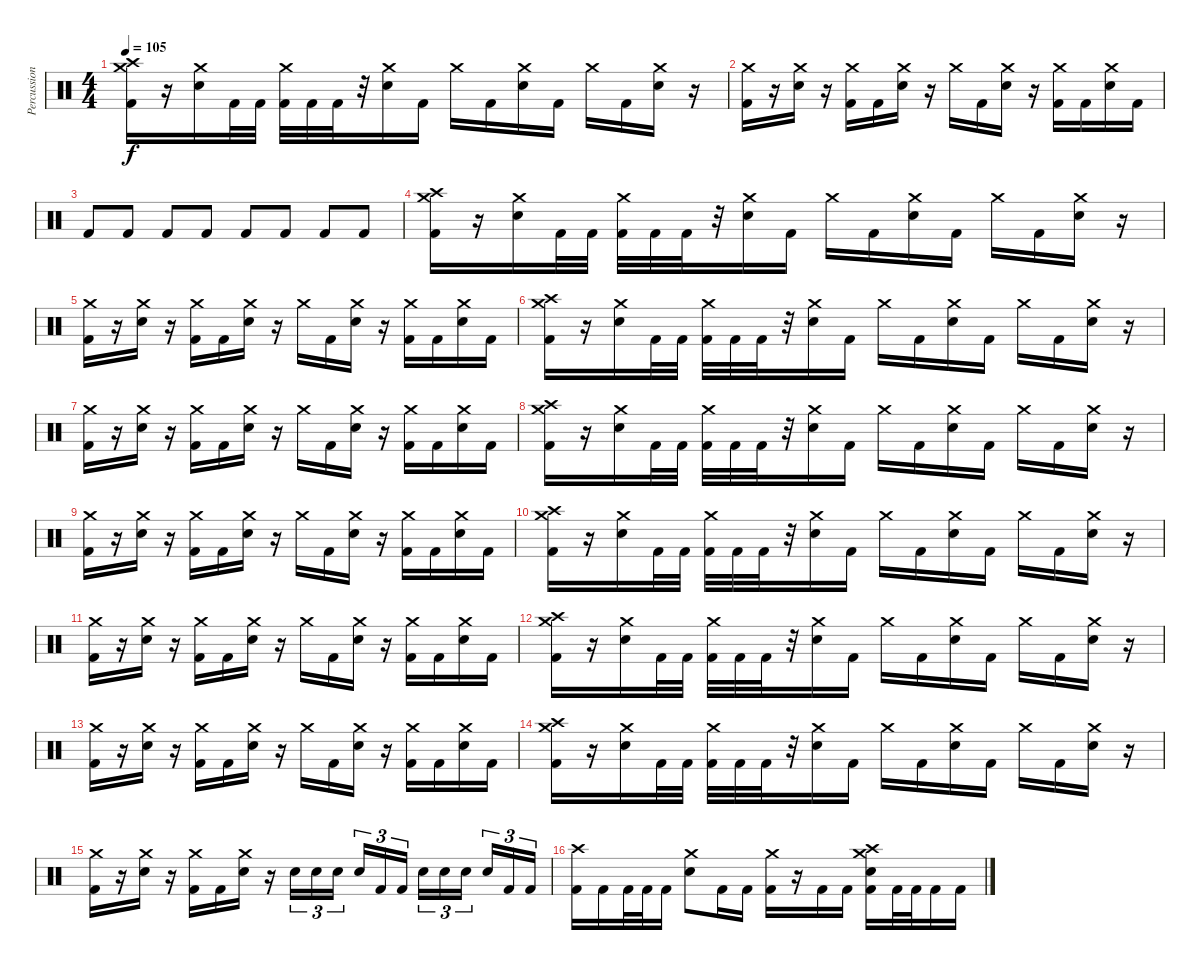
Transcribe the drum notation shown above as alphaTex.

\track ("Percussion" "Percussion") {instrument percussion}
\staff {score}
\articulation defaults
\ts (4 4)
\tempo 105
\clef neutral
\ks c
("Crash medium (hit)" "Crash high (hit)" "Kick (hit) 2").16{dy f} r.16 ("Crash medium (hit)" "Electric Snare (hit)").16 "Kick (hit) 2".32 "Kick (hit) 2".32 ("Crash medium (hit)" "Kick (hit) 2").32 "Kick (hit) 2".32 "Kick (hit) 2".32 r.32 ("Crash medium (hit)" "Electric Snare (hit)").16 "Kick (hit) 2".16 "Crash medium (hit)".16 "Kick (hit) 2".16 ("Crash medium (hit)" "Electric Snare (hit)").16 "Kick (hit) 2".16 "Crash medium (hit)".16 "Kick (hit) 2".16 ("Crash medium (hit)" "Electric Snare (hit)").16 r.16 |
("Crash medium (hit)" "Kick (hit) 2").16 r.16 ("Crash medium (hit)" "Electric Snare (hit)").16 r.16 ("Crash medium (hit)" "Kick (hit) 2").16 "Kick (hit) 2".16 ("Crash medium (hit)" "Electric Snare (hit)").16 r.16 "Crash medium (hit)".16 "Kick (hit) 2".16 ("Crash medium (hit)" "Electric Snare (hit)").16 r.16 ("Crash medium (hit)" "Kick (hit) 2").16 "Kick (hit) 2".16 ("Crash medium (hit)" "Electric Snare (hit)").16 "Kick (hit) 2".16 |
"Kick (hit) 2".8 "Kick (hit) 2".8 "Kick (hit) 2".8 "Kick (hit) 2".8 "Kick (hit) 2".8 "Kick (hit) 2".8 "Kick (hit) 2".8 "Kick (hit) 2".8 |
("Crash medium (hit)" "Crash high (hit)" "Kick (hit) 2").16 r.16 ("Crash medium (hit)" "Electric Snare (hit)").16 "Kick (hit) 2".32 "Kick (hit) 2".32 ("Crash medium (hit)" "Kick (hit) 2").32 "Kick (hit) 2".32 "Kick (hit) 2".32 r.32 ("Crash medium (hit)" "Electric Snare (hit)").16 "Kick (hit) 2".16 "Crash medium (hit)".16 "Kick (hit) 2".16 ("Crash medium (hit)" "Electric Snare (hit)").16 "Kick (hit) 2".16 "Crash medium (hit)".16 "Kick (hit) 2".16 ("Crash medium (hit)" "Electric Snare (hit)").16 r.16 |
("Crash medium (hit)" "Kick (hit) 2").16 r.16 ("Crash medium (hit)" "Electric Snare (hit)").16 r.16 ("Crash medium (hit)" "Kick (hit) 2").16 "Kick (hit) 2".16 ("Crash medium (hit)" "Electric Snare (hit)").16 r.16 "Crash medium (hit)".16 "Kick (hit) 2".16 ("Crash medium (hit)" "Electric Snare (hit)").16 r.16 ("Crash medium (hit)" "Kick (hit) 2").16 "Kick (hit) 2".16 ("Crash medium (hit)" "Electric Snare (hit)").16 "Kick (hit) 2".16 |
("Crash medium (hit)" "Crash high (hit)" "Kick (hit) 2").16 r.16 ("Crash medium (hit)" "Electric Snare (hit)").16 "Kick (hit) 2".32 "Kick (hit) 2".32 ("Crash medium (hit)" "Kick (hit) 2").32 "Kick (hit) 2".32 "Kick (hit) 2".32 r.32 ("Crash medium (hit)" "Electric Snare (hit)").16 "Kick (hit) 2".16 "Crash medium (hit)".16 "Kick (hit) 2".16 ("Crash medium (hit)" "Electric Snare (hit)").16 "Kick (hit) 2".16 "Crash medium (hit)".16 "Kick (hit) 2".16 ("Crash medium (hit)" "Electric Snare (hit)").16 r.16 |
("Crash medium (hit)" "Kick (hit) 2").16 r.16 ("Crash medium (hit)" "Electric Snare (hit)").16 r.16 ("Crash medium (hit)" "Kick (hit) 2").16 "Kick (hit) 2".16 ("Crash medium (hit)" "Electric Snare (hit)").16 r.16 "Crash medium (hit)".16 "Kick (hit) 2".16 ("Crash medium (hit)" "Electric Snare (hit)").16 r.16 ("Crash medium (hit)" "Kick (hit) 2").16 "Kick (hit) 2".16 ("Crash medium (hit)" "Electric Snare (hit)").16 "Kick (hit) 2".16 |
("Crash medium (hit)" "Crash high (hit)" "Kick (hit) 2").16 r.16 ("Crash medium (hit)" "Electric Snare (hit)").16 "Kick (hit) 2".32 "Kick (hit) 2".32 ("Crash medium (hit)" "Kick (hit) 2").32 "Kick (hit) 2".32 "Kick (hit) 2".32 r.32 ("Crash medium (hit)" "Electric Snare (hit)").16 "Kick (hit) 2".16 "Crash medium (hit)".16 "Kick (hit) 2".16 ("Crash medium (hit)" "Electric Snare (hit)").16 "Kick (hit) 2".16 "Crash medium (hit)".16 "Kick (hit) 2".16 ("Crash medium (hit)" "Electric Snare (hit)").16 r.16 |
("Crash medium (hit)" "Kick (hit) 2").16 r.16 ("Crash medium (hit)" "Electric Snare (hit)").16 r.16 ("Crash medium (hit)" "Kick (hit) 2").16 "Kick (hit) 2".16 ("Crash medium (hit)" "Electric Snare (hit)").16 r.16 "Crash medium (hit)".16 "Kick (hit) 2".16 ("Crash medium (hit)" "Electric Snare (hit)").16 r.16 ("Crash medium (hit)" "Kick (hit) 2").16 "Kick (hit) 2".16 ("Crash medium (hit)" "Electric Snare (hit)").16 "Kick (hit) 2".16 |
("Crash medium (hit)" "Crash high (hit)" "Kick (hit) 2").16 r.16 ("Crash medium (hit)" "Electric Snare (hit)").16 "Kick (hit) 2".32 "Kick (hit) 2".32 ("Crash medium (hit)" "Kick (hit) 2").32 "Kick (hit) 2".32 "Kick (hit) 2".32 r.32 ("Crash medium (hit)" "Electric Snare (hit)").16 "Kick (hit) 2".16 "Crash medium (hit)".16 "Kick (hit) 2".16 ("Crash medium (hit)" "Electric Snare (hit)").16 "Kick (hit) 2".16 "Crash medium (hit)".16 "Kick (hit) 2".16 ("Crash medium (hit)" "Electric Snare (hit)").16 r.16 |
("Crash medium (hit)" "Kick (hit) 2").16 r.16 ("Crash medium (hit)" "Electric Snare (hit)").16 r.16 ("Crash medium (hit)" "Kick (hit) 2").16 "Kick (hit) 2".16 ("Crash medium (hit)" "Electric Snare (hit)").16 r.16 "Crash medium (hit)".16 "Kick (hit) 2".16 ("Crash medium (hit)" "Electric Snare (hit)").16 r.16 ("Crash medium (hit)" "Kick (hit) 2").16 "Kick (hit) 2".16 ("Crash medium (hit)" "Electric Snare (hit)").16 "Kick (hit) 2".16 |
("Crash medium (hit)" "Crash high (hit)" "Kick (hit) 2").16 r.16 ("Crash medium (hit)" "Electric Snare (hit)").16 "Kick (hit) 2".32 "Kick (hit) 2".32 ("Crash medium (hit)" "Kick (hit) 2").32 "Kick (hit) 2".32 "Kick (hit) 2".32 r.32 ("Crash medium (hit)" "Electric Snare (hit)").16 "Kick (hit) 2".16 "Crash medium (hit)".16 "Kick (hit) 2".16 ("Crash medium (hit)" "Electric Snare (hit)").16 "Kick (hit) 2".16 "Crash medium (hit)".16 "Kick (hit) 2".16 ("Crash medium (hit)" "Electric Snare (hit)").16 r.16 |
("Crash medium (hit)" "Kick (hit) 2").16 r.16 ("Crash medium (hit)" "Electric Snare (hit)").16 r.16 ("Crash medium (hit)" "Kick (hit) 2").16 "Kick (hit) 2".16 ("Crash medium (hit)" "Electric Snare (hit)").16 r.16 "Crash medium (hit)".16 "Kick (hit) 2".16 ("Crash medium (hit)" "Electric Snare (hit)").16 r.16 ("Crash medium (hit)" "Kick (hit) 2").16 "Kick (hit) 2".16 ("Crash medium (hit)" "Electric Snare (hit)").16 "Kick (hit) 2".16 |
("Crash medium (hit)" "Crash high (hit)" "Kick (hit) 2").16 r.16 ("Crash medium (hit)" "Electric Snare (hit)").16 "Kick (hit) 2".32 "Kick (hit) 2".32 ("Crash medium (hit)" "Kick (hit) 2").32 "Kick (hit) 2".32 "Kick (hit) 2".32 r.32 ("Crash medium (hit)" "Electric Snare (hit)").16 "Kick (hit) 2".16 "Crash medium (hit)".16 "Kick (hit) 2".16 ("Crash medium (hit)" "Electric Snare (hit)").16 "Kick (hit) 2".16 "Crash medium (hit)".16 "Kick (hit) 2".16 ("Crash medium (hit)" "Electric Snare (hit)").16 r.16 |
("Crash medium (hit)" "Kick (hit) 2").16 r.16 ("Crash medium (hit)" "Electric Snare (hit)").16 r.16 ("Crash medium (hit)" "Kick (hit) 2").16 "Kick (hit) 2".16 ("Crash medium (hit)" "Electric Snare (hit)").16 r.16 "Electric Snare (hit)".16{tu (3 2)} "Electric Snare (hit)".16{tu (3 2)} "Electric Snare (hit)".16{tu (3 2) beam splitsecondary} "Electric Snare (hit)".16{tu (3 2)} "Kick (hit) 2".16{tu (3 2)} "Kick (hit) 2".16{tu (3 2)} "Electric Snare (hit)".16{tu (3 2)} "Electric Snare (hit)".16{tu (3 2)} "Electric Snare (hit)".16{tu (3 2) beam splitsecondary} "Electric Snare (hit)".16{tu (3 2)} "Kick (hit) 2".16{tu (3 2)} "Kick (hit) 2".16{tu (3 2)} |
("Crash high (hit)" "Kick (hit) 2").16 "Kick (hit) 2".16 "Kick (hit) 2".32 "Kick (hit) 2".32 "Kick (hit) 2".16 ("Crash medium (hit)" "Electric Snare (hit)").8 "Kick (hit) 2".16 "Kick (hit) 2".16 ("Crash medium (hit)" "Kick (hit) 2").16 r.16 "Kick (hit) 2".16 "Kick (hit) 2".16 ("Crash high (hit)" "Crash medium (hit)" "Electric Snare (hit)" "Kick (hit) 2").16 "Kick (hit) 2".32 "Kick (hit) 2".32 "Kick (hit) 2".16 "Kick (hit) 2".16
